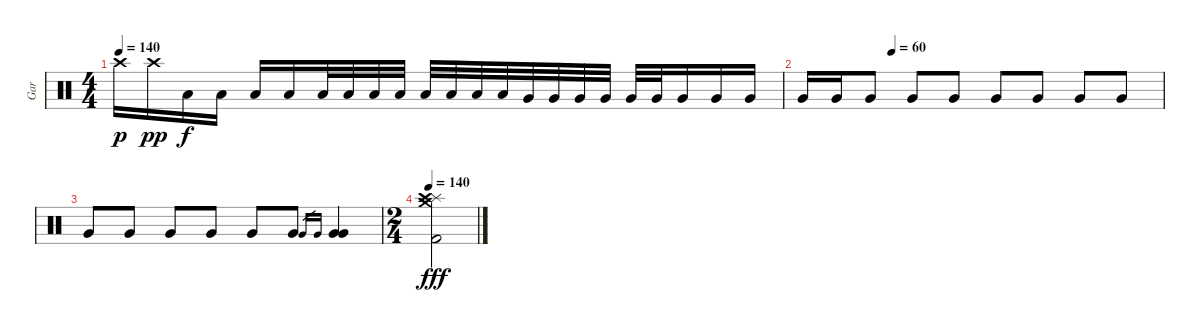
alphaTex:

\track ("Gar" "Gar") {instrument percussion}
\staff {score}
\articulation defaults
\ts (4 4)
\tempo 140
\clef neutral
\ks c "Crash high (hit)".16{dy p} "Crash high (hit)".16{dy pp} "Low Floor Tom (hit)".16{dy f} "Low Floor Tom (hit)".16 "Low Floor Tom (hit)".16 "Low Floor Tom (hit)".16 "Low Floor Tom (hit)".32 "Low Floor Tom (hit)".32 "Low Floor Tom (hit)".32 "Low Floor Tom (hit)".32 "Low Floor Tom (hit)".32 "Low Floor Tom (hit)".32 "Low Floor Tom (hit)".32 "Low Floor Tom (hit)".32 "Very Low Tom (hit)".32 "Very Low Tom (hit)".32 "Very Low Tom (hit)".32 "Very Low Tom (hit)".32 "Very Low Tom (hit)".32 "Very Low Tom (hit)".32 "Very Low Tom (hit)".16 "Very Low Tom (hit)".16 "Very Low Tom (hit)".16
|
\tempo (60 0.25)
"Very Low Tom (hit)".16 "Very Low Tom (hit)".16 "Very Low Tom (hit)".8 "Very Low Tom (hit)".8 "Very Low Tom (hit)".8 "Very Low Tom (hit)".8 "Very Low Tom (hit)".8 "Very Low Tom (hit)".8 "Very Low Tom (hit)".8 |
"Very Low Tom (hit)".8 "Very Low Tom (hit)".8 "Very Low Tom (hit)".8 "Very Low Tom (hit)".8 "Very Low Tom (hit)".8 "Very Low Tom (hit)".8 "Very Low Tom (hit)".16{gr} "Very Low Tom (hit)".16{gr} ("Very Low Tom (hit)" "Very Low Tom (hit)").4 |
\ts (2 4)
\tempo 140
("Splash (hit)" "Crash medium (hit)" "Crash high (hit)" "Kick (hit) 2").2{dy fff}
